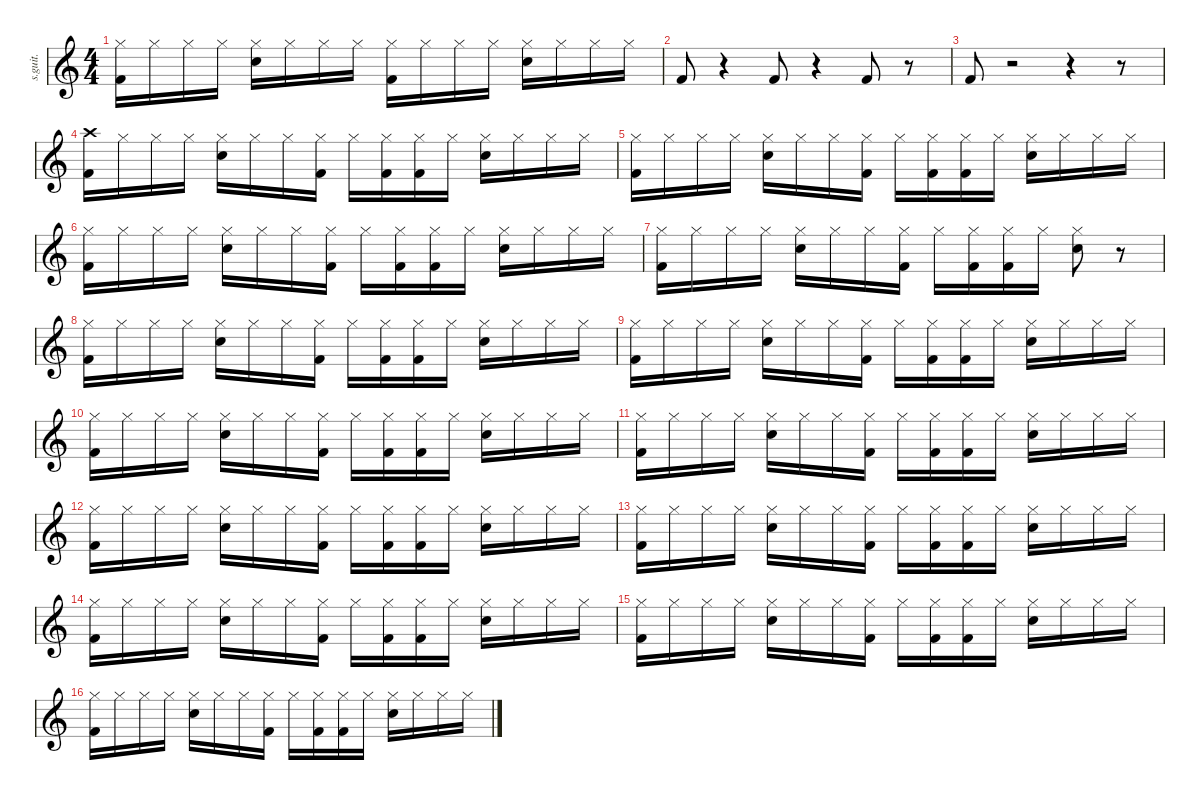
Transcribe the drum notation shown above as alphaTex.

\defaultSystemsLayout 4
\hideDynamics
\bracketExtendMode nobrackets
\track ("Drums" "s.guit.") {instrument percussion}
\staff {score}
\articulation defaults
\ts (4 4)
\tempo (100 hide)
\clef g2
\ks c
("Hi-Hat (closed)" "Kick (hit) 2").16{dy f} "Hi-Hat (closed)".16 "Hi-Hat (closed)".16 "Hi-Hat (closed)".16 ("Hi-Hat (closed)" "Electric Snare (hit)").16 "Hi-Hat (closed)".16 "Hi-Hat (closed)".16 "Hi-Hat (closed)".16 ("Kick (hit) 2" "Hi-Hat (closed)").16 "Hi-Hat (closed)".16 "Hi-Hat (closed)".16 "Hi-Hat (closed)".16 ("Hi-Hat (closed)" "Electric Snare (hit)").16 "Hi-Hat (closed)".16 "Hi-Hat (closed)".16 "Hi-Hat (closed)".16 |
"Kick (hit) 2".8 r.4 "Kick (hit) 2".8 r.4 "Kick (hit) 2".8 r.8 |
"Kick (hit) 2".8 r.2 r.4 r.8 |
("Crash high (hit)" "Kick (hit) 2").16 "Hi-Hat (closed)".16 "Hi-Hat (closed)".16 "Hi-Hat (closed)".16 ("Hi-Hat (closed)" "Electric Snare (hit)").16 "Hi-Hat (closed)".16 "Hi-Hat (closed)".16 ("Hi-Hat (closed)" "Kick (hit) 2").16 "Hi-Hat (closed)".16 ("Hi-Hat (closed)" "Kick (hit) 2").16 ("Hi-Hat (closed)" "Kick (hit) 2").16 "Hi-Hat (closed)".16 ("Hi-Hat (closed)" "Electric Snare (hit)").16 "Hi-Hat (closed)".16 "Hi-Hat (closed)".16 "Hi-Hat (closed)".16 |
("Hi-Hat (closed)" "Kick (hit) 2").16 "Hi-Hat (closed)".16 "Hi-Hat (closed)".16 "Hi-Hat (closed)".16 ("Hi-Hat (closed)" "Electric Snare (hit)").16 "Hi-Hat (closed)".16 "Hi-Hat (closed)".16 ("Hi-Hat (closed)" "Kick (hit) 2").16 "Hi-Hat (closed)".16 ("Hi-Hat (closed)" "Kick (hit) 2").16 ("Hi-Hat (closed)" "Kick (hit) 2").16 "Hi-Hat (closed)".16 ("Hi-Hat (closed)" "Electric Snare (hit)").16 "Hi-Hat (closed)".16 "Hi-Hat (closed)".16 "Hi-Hat (closed)".16 |
("Hi-Hat (closed)" "Kick (hit) 2").16 "Hi-Hat (closed)".16 "Hi-Hat (closed)".16 "Hi-Hat (closed)".16 ("Hi-Hat (closed)" "Electric Snare (hit)").16 "Hi-Hat (closed)".16 "Hi-Hat (closed)".16 ("Hi-Hat (closed)" "Kick (hit) 2").16 "Hi-Hat (closed)".16 ("Hi-Hat (closed)" "Kick (hit) 2").16 ("Hi-Hat (closed)" "Kick (hit) 2").16 "Hi-Hat (closed)".16 ("Hi-Hat (closed)" "Electric Snare (hit)").16 "Hi-Hat (closed)".16 "Hi-Hat (closed)".16 "Hi-Hat (closed)".16 |
("Hi-Hat (closed)" "Kick (hit) 2").16 "Hi-Hat (closed)".16 "Hi-Hat (closed)".16 "Hi-Hat (closed)".16 ("Hi-Hat (closed)" "Electric Snare (hit)").16 "Hi-Hat (closed)".16 "Hi-Hat (closed)".16 ("Hi-Hat (closed)" "Kick (hit) 2").16 "Hi-Hat (closed)".16 ("Hi-Hat (closed)" "Kick (hit) 2").16 ("Hi-Hat (closed)" "Kick (hit) 2").16 "Hi-Hat (closed)".16 ("Hi-Hat (closed)" "Electric Snare (hit)").8 r.8 |
("Hi-Hat (closed)" "Kick (hit) 2").16 "Hi-Hat (closed)".16 "Hi-Hat (closed)".16 "Hi-Hat (closed)".16 ("Hi-Hat (closed)" "Electric Snare (hit)").16 "Hi-Hat (closed)".16 "Hi-Hat (closed)".16 ("Hi-Hat (closed)" "Kick (hit) 2").16 "Hi-Hat (closed)".16 ("Hi-Hat (closed)" "Kick (hit) 2").16 ("Hi-Hat (closed)" "Kick (hit) 2").16 "Hi-Hat (closed)".16 ("Hi-Hat (closed)" "Electric Snare (hit)").16 "Hi-Hat (closed)".16 "Hi-Hat (closed)".16 "Hi-Hat (closed)".16 |
("Hi-Hat (closed)" "Kick (hit) 2").16 "Hi-Hat (closed)".16 "Hi-Hat (closed)".16 "Hi-Hat (closed)".16 ("Hi-Hat (closed)" "Electric Snare (hit)").16 "Hi-Hat (closed)".16 "Hi-Hat (closed)".16 ("Hi-Hat (closed)" "Kick (hit) 2").16 "Hi-Hat (closed)".16 ("Hi-Hat (closed)" "Kick (hit) 2").16 ("Hi-Hat (closed)" "Kick (hit) 2").16 "Hi-Hat (closed)".16 ("Hi-Hat (closed)" "Electric Snare (hit)").16 "Hi-Hat (closed)".16 "Hi-Hat (closed)".16 "Hi-Hat (closed)".16 |
("Hi-Hat (closed)" "Kick (hit) 2").16 "Hi-Hat (closed)".16 "Hi-Hat (closed)".16 "Hi-Hat (closed)".16 ("Hi-Hat (closed)" "Electric Snare (hit)").16 "Hi-Hat (closed)".16 "Hi-Hat (closed)".16 ("Hi-Hat (closed)" "Kick (hit) 2").16 "Hi-Hat (closed)".16 ("Hi-Hat (closed)" "Kick (hit) 2").16 ("Hi-Hat (closed)" "Kick (hit) 2").16 "Hi-Hat (closed)".16 ("Hi-Hat (closed)" "Electric Snare (hit)").16 "Hi-Hat (closed)".16 "Hi-Hat (closed)".16 "Hi-Hat (closed)".16 |
("Hi-Hat (closed)" "Kick (hit) 2").16 "Hi-Hat (closed)".16 "Hi-Hat (closed)".16 "Hi-Hat (closed)".16 ("Hi-Hat (closed)" "Electric Snare (hit)").16 "Hi-Hat (closed)".16 "Hi-Hat (closed)".16 ("Hi-Hat (closed)" "Kick (hit) 2").16 "Hi-Hat (closed)".16 ("Hi-Hat (closed)" "Kick (hit) 2").16 ("Hi-Hat (closed)" "Kick (hit) 2").16 "Hi-Hat (closed)".16 ("Hi-Hat (closed)" "Electric Snare (hit)").16 "Hi-Hat (closed)".16 "Hi-Hat (closed)".16 "Hi-Hat (closed)".16 |
("Hi-Hat (closed)" "Kick (hit) 2").16 "Hi-Hat (closed)".16 "Hi-Hat (closed)".16 "Hi-Hat (closed)".16 ("Hi-Hat (closed)" "Electric Snare (hit)").16 "Hi-Hat (closed)".16 "Hi-Hat (closed)".16 ("Hi-Hat (closed)" "Kick (hit) 2").16 "Hi-Hat (closed)".16 ("Hi-Hat (closed)" "Kick (hit) 2").16 ("Hi-Hat (closed)" "Kick (hit) 2").16 "Hi-Hat (closed)".16 ("Hi-Hat (closed)" "Electric Snare (hit)").16 "Hi-Hat (closed)".16 "Hi-Hat (closed)".16 "Hi-Hat (closed)".16 |
("Hi-Hat (closed)" "Kick (hit) 2").16 "Hi-Hat (closed)".16 "Hi-Hat (closed)".16 "Hi-Hat (closed)".16 ("Hi-Hat (closed)" "Electric Snare (hit)").16 "Hi-Hat (closed)".16 "Hi-Hat (closed)".16 ("Hi-Hat (closed)" "Kick (hit) 2").16 "Hi-Hat (closed)".16 ("Hi-Hat (closed)" "Kick (hit) 2").16 ("Hi-Hat (closed)" "Kick (hit) 2").16 "Hi-Hat (closed)".16 ("Hi-Hat (closed)" "Electric Snare (hit)").16 "Hi-Hat (closed)".16 "Hi-Hat (closed)".16 "Hi-Hat (closed)".16 |
("Hi-Hat (closed)" "Kick (hit) 2").16 "Hi-Hat (closed)".16 "Hi-Hat (closed)".16 "Hi-Hat (closed)".16 ("Hi-Hat (closed)" "Electric Snare (hit)").16 "Hi-Hat (closed)".16 "Hi-Hat (closed)".16 ("Hi-Hat (closed)" "Kick (hit) 2").16 "Hi-Hat (closed)".16 ("Hi-Hat (closed)" "Kick (hit) 2").16 ("Hi-Hat (closed)" "Kick (hit) 2").16 "Hi-Hat (closed)".16 ("Hi-Hat (closed)" "Electric Snare (hit)").16 "Hi-Hat (closed)".16 "Hi-Hat (closed)".16 "Hi-Hat (closed)".16 |
("Hi-Hat (closed)" "Kick (hit) 2").16 "Hi-Hat (closed)".16 "Hi-Hat (closed)".16 "Hi-Hat (closed)".16 ("Hi-Hat (closed)" "Electric Snare (hit)").16 "Hi-Hat (closed)".16 "Hi-Hat (closed)".16 ("Hi-Hat (closed)" "Kick (hit) 2").16 "Hi-Hat (closed)".16 ("Hi-Hat (closed)" "Kick (hit) 2").16 ("Hi-Hat (closed)" "Kick (hit) 2").16 "Hi-Hat (closed)".16 ("Hi-Hat (closed)" "Electric Snare (hit)").16 "Hi-Hat (closed)".16 "Hi-Hat (closed)".16 "Hi-Hat (closed)".16 |
("Hi-Hat (closed)" "Kick (hit) 2").16 "Hi-Hat (closed)".16 "Hi-Hat (closed)".16 "Hi-Hat (closed)".16 ("Hi-Hat (closed)" "Electric Snare (hit)").16 "Hi-Hat (closed)".16 "Hi-Hat (closed)".16 ("Hi-Hat (closed)" "Kick (hit) 2").16 "Hi-Hat (closed)".16 ("Hi-Hat (closed)" "Kick (hit) 2").16 ("Hi-Hat (closed)" "Kick (hit) 2").16 "Hi-Hat (closed)".16 ("Hi-Hat (closed)" "Electric Snare (hit)").16 "Hi-Hat (closed)".16 "Hi-Hat (closed)".16 "Hi-Hat (closed)".16
